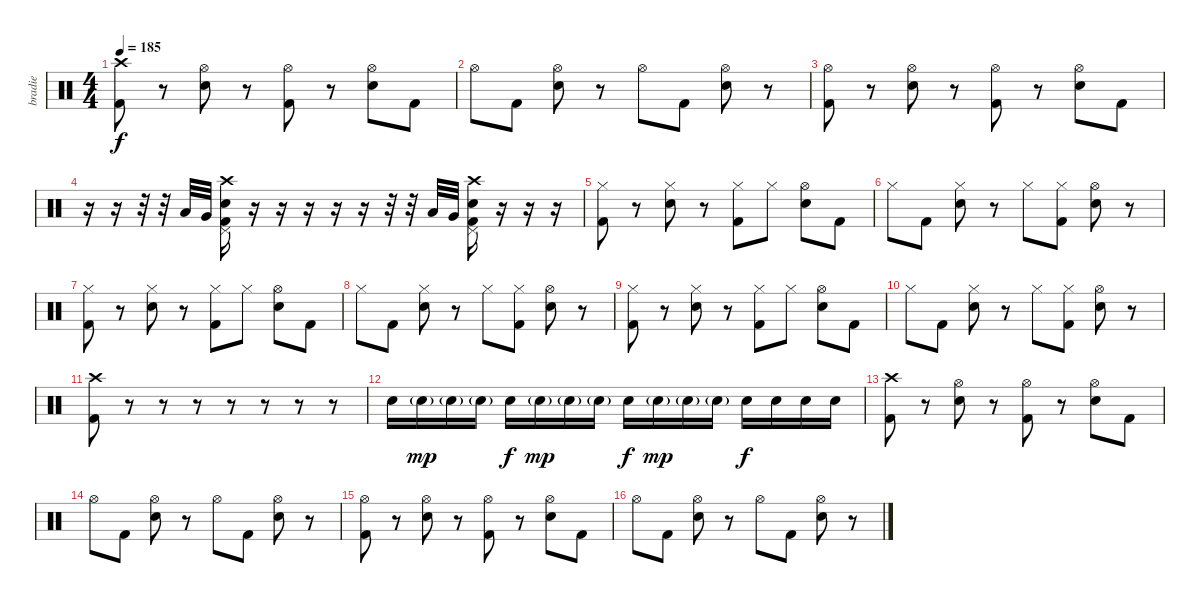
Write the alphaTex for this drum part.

\track ("bradie" "bradie") {instrument percussion}
\staff {score}
\articulation defaults
\ts (4 4)
\tempo 185
\clef neutral
\ks c
("Crash high (hit)" "Kick (hit) 2").8{dy f} r.8 ("Hi-Hat (open)" "Electric Snare (hit)").8 r.8 ("Hi-Hat (open)" "Kick (hit) 2").8 r.8 ("Hi-Hat (open)" "Electric Snare (hit)").8 "Kick (hit) 2".8 |
"Hi-Hat (open)".8 "Kick (hit) 2".8 ("Hi-Hat (open)" "Electric Snare (hit)").8 r.8 "Hi-Hat (open)".8 "Kick (hit) 2".8 ("Hi-Hat (open)" "Electric Snare (hit)").8 r.8 |
("Hi-Hat (open)" "Kick (hit) 2").8 r.8 ("Hi-Hat (open)" "Electric Snare (hit)").8 r.8 ("Hi-Hat (open)" "Kick (hit) 2").8 r.8 ("Hi-Hat (open)" "Electric Snare (hit)").8 "Kick (hit) 2".8 |
r.16 r.16 r.32 r.32 "Low Tom (hit)".32 "Very Low Tom (hit)".32 ("Crash high (hit)" "Pedal Hi-Hat (hit)" "Electric Snare (hit)" "Kick (hit) 2").16 r.16 r.16 r.16 r.16 r.16 r.32 r.32 "Low Tom (hit)".32 "Very Low Tom (hit)".32 ("Crash high (hit)" "Pedal Hi-Hat (hit)" "Electric Snare (hit)" "Kick (hit) 2").16 r.16 r.16 r.16 |
("Hi-Hat (closed)" "Kick (hit) 2").8 r.8 ("Hi-Hat (closed)" "Electric Snare (hit)").8 r.8 ("Hi-Hat (closed)" "Kick (hit) 2").8 "Hi-Hat (closed)".8 ("Hi-Hat (open)" "Electric Snare (hit)").8 "Kick (hit) 2".8 |
"Hi-Hat (closed)".8 "Kick (hit) 2".8 ("Hi-Hat (closed)" "Electric Snare (hit)").8 r.8 "Hi-Hat (closed)".8 ("Hi-Hat (closed)" "Kick (hit) 2").8 ("Hi-Hat (open)" "Electric Snare (hit)").8 r.8 |
("Hi-Hat (closed)" "Kick (hit) 2").8 r.8 ("Hi-Hat (closed)" "Electric Snare (hit)").8 r.8 ("Hi-Hat (closed)" "Kick (hit) 2").8 "Hi-Hat (closed)".8 ("Hi-Hat (open)" "Electric Snare (hit)").8 "Kick (hit) 2".8 |
"Hi-Hat (closed)".8 "Kick (hit) 2".8 ("Hi-Hat (closed)" "Electric Snare (hit)").8 r.8 "Hi-Hat (closed)".8 ("Hi-Hat (closed)" "Kick (hit) 2").8 ("Hi-Hat (open)" "Electric Snare (hit)").8 r.8 |
("Hi-Hat (closed)" "Kick (hit) 2").8 r.8 ("Hi-Hat (closed)" "Electric Snare (hit)").8 r.8 ("Hi-Hat (closed)" "Kick (hit) 2").8 "Hi-Hat (closed)".8 ("Hi-Hat (open)" "Electric Snare (hit)").8 "Kick (hit) 2".8 |
"Hi-Hat (closed)".8 "Kick (hit) 2".8 ("Hi-Hat (closed)" "Electric Snare (hit)").8 r.8 "Hi-Hat (closed)".8 ("Hi-Hat (closed)" "Kick (hit) 2").8 ("Hi-Hat (open)" "Electric Snare (hit)").8 r.8 |
("Crash high (hit)" "Kick (hit) 2").8 r.8 r.8 r.8 r.8 r.8 r.8 r.8 |
"Electric Snare (hit)".16 "Electric Snare (hit)"{g}.16{dy mp} "Electric Snare (hit)"{g}.16 "Electric Snare (hit)"{g}.16 "Electric Snare (hit)".16{dy f} "Electric Snare (hit)"{g}.16{dy mp} "Electric Snare (hit)"{g}.16 "Electric Snare (hit)"{g}.16 "Electric Snare (hit)".16{dy f} "Electric Snare (hit)"{g}.16{dy mp} "Electric Snare (hit)"{g}.16 "Electric Snare (hit)"{g}.16 "Electric Snare (hit)".16{dy f} "Electric Snare (hit)".16 "Electric Snare (hit)".16 "Electric Snare (hit)".16 |
("Crash high (hit)" "Kick (hit) 2").8 r.8 ("Hi-Hat (open)" "Electric Snare (hit)").8 r.8 ("Hi-Hat (open)" "Kick (hit) 2").8 r.8 ("Hi-Hat (open)" "Electric Snare (hit)").8 "Kick (hit) 2".8 |
"Hi-Hat (open)".8 "Kick (hit) 2".8 ("Hi-Hat (open)" "Electric Snare (hit)").8 r.8 "Hi-Hat (open)".8 "Kick (hit) 2".8 ("Hi-Hat (open)" "Electric Snare (hit)").8 r.8 |
("Hi-Hat (open)" "Kick (hit) 2").8 r.8 ("Hi-Hat (open)" "Electric Snare (hit)").8 r.8 ("Hi-Hat (open)" "Kick (hit) 2").8 r.8 ("Hi-Hat (open)" "Electric Snare (hit)").8 "Kick (hit) 2".8 |
"Hi-Hat (open)".8 "Kick (hit) 2".8 ("Hi-Hat (open)" "Electric Snare (hit)").8 r.8 "Hi-Hat (open)".8 "Kick (hit) 2".8 ("Hi-Hat (open)" "Electric Snare (hit)").8 r.8
